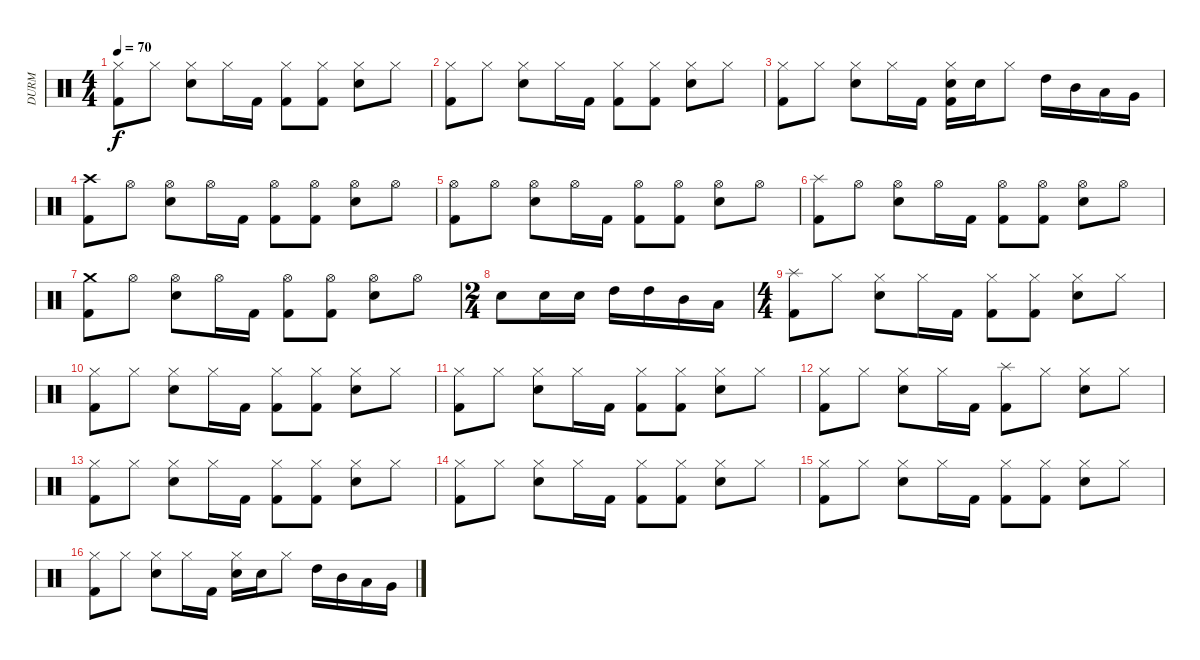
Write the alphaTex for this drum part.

\track ("DURM" "DURM") {instrument percussion}
\staff {score}
\articulation defaults
\ts (4 4)
\tempo 70
\clef neutral
\ks c
("Hi-Hat (closed)" "Kick (hit) 2").8{dy f} "Hi-Hat (closed)".8 ("Hi-Hat (closed)" "Snare (hit) 2").8 "Hi-Hat (closed)".16 "Kick (hit) 2".16 ("Hi-Hat (closed)" "Kick (hit) 2").8 ("Hi-Hat (closed)" "Kick (hit) 2").8 ("Hi-Hat (closed)" "Snare (hit) 2").8 "Hi-Hat (closed)".8 |
("Hi-Hat (closed)" "Kick (hit) 2").8 "Hi-Hat (closed)".8 ("Hi-Hat (closed)" "Snare (hit) 2").8 "Hi-Hat (closed)".16 "Kick (hit) 2".16 ("Hi-Hat (closed)" "Kick (hit) 2").8 ("Hi-Hat (closed)" "Kick (hit) 2").8 ("Hi-Hat (closed)" "Snare (hit) 2").8 "Hi-Hat (closed)".8 |
("Hi-Hat (closed)" "Kick (hit) 2").8 "Hi-Hat (closed)".8 ("Hi-Hat (closed)" "Snare (hit) 2").8 "Hi-Hat (closed)".16 "Kick (hit) 2".16 ("Hi-Hat (closed)" "Snare (hit) 2" "Kick (hit) 2").16 "Snare (hit) 2".16 "Hi-Hat (closed)".8 "High Tom (hit)".16 "Mid Tom (hit)".16 "Low Tom (hit)".16 "Very Low Tom (hit)".16 |
("Crash high (hit)" "Kick (hit) 2").8 "Hi-Hat (open)".8 ("Hi-Hat (open)" "Snare (hit) 2").8 "Hi-Hat (open)".16 "Kick (hit) 2".16 ("Hi-Hat (open)" "Kick (hit) 2").8 ("Hi-Hat (open)" "Kick (hit) 2").8 ("Hi-Hat (open)" "Snare (hit) 2").8 "Hi-Hat (open)".8 |
("Hi-Hat (open)" "Kick (hit) 2").8 "Hi-Hat (open)".8 ("Hi-Hat (open)" "Snare (hit) 2").8 "Hi-Hat (open)".16 "Kick (hit) 2".16 ("Hi-Hat (open)" "Kick (hit) 2").8 ("Hi-Hat (open)" "Kick (hit) 2").8 ("Hi-Hat (open)" "Snare (hit) 2").8 "Hi-Hat (open)".8 |
("Splash (hit)" "Kick (hit) 2").8 "Hi-Hat (open)".8 ("Hi-Hat (open)" "Snare (hit) 2").8 "Hi-Hat (open)".16 "Kick (hit) 2".16 ("Hi-Hat (open)" "Kick (hit) 2").8 ("Hi-Hat (open)" "Kick (hit) 2").8 ("Hi-Hat (open)" "Snare (hit) 2").8 "Hi-Hat (open)".8 |
("Crash medium (hit)" "Kick (hit) 2").8 "Hi-Hat (open)".8 ("Hi-Hat (open)" "Snare (hit) 2").8 "Hi-Hat (open)".16 "Kick (hit) 2".16 ("Hi-Hat (open)" "Kick (hit) 2").8 ("Hi-Hat (open)" "Kick (hit) 2").8 ("Hi-Hat (open)" "Snare (hit) 2").8 "Hi-Hat (open)".8 |
\ts (2 4)
"Snare (hit) 2".8 "Snare (hit) 2".16 "Snare (hit) 2".16 "High Tom (hit)".16 "High Tom (hit)".16 "Mid Tom (hit)".16 "Low Tom (hit)".16 |
\ts (4 4)
("Splash (hit)" "Kick (hit) 2").8 "Hi-Hat (closed)".8 ("Hi-Hat (closed)" "Snare (hit) 2").8 "Hi-Hat (closed)".16 "Kick (hit) 2".16 ("Hi-Hat (closed)" "Kick (hit) 2").8 ("Hi-Hat (closed)" "Kick (hit) 2").8 ("Hi-Hat (closed)" "Snare (hit) 2").8 "Hi-Hat (closed)".8 |
("Hi-Hat (closed)" "Kick (hit) 2").8 "Hi-Hat (closed)".8 ("Hi-Hat (closed)" "Snare (hit) 2").8 "Hi-Hat (closed)".16 "Kick (hit) 2".16 ("Hi-Hat (closed)" "Kick (hit) 2").8 ("Hi-Hat (closed)" "Kick (hit) 2").8 ("Hi-Hat (closed)" "Snare (hit) 2").8 "Hi-Hat (closed)".8 |
("Hi-Hat (closed)" "Kick (hit) 2").8 "Hi-Hat (closed)".8 ("Hi-Hat (closed)" "Snare (hit) 2").8 "Hi-Hat (closed)".16 "Kick (hit) 2".16 ("Hi-Hat (closed)" "Kick (hit) 2").8 ("Hi-Hat (closed)" "Kick (hit) 2").8 ("Hi-Hat (closed)" "Snare (hit) 2").8 "Hi-Hat (closed)".8 |
("Hi-Hat (closed)" "Kick (hit) 2").8 "Hi-Hat (closed)".8 ("Hi-Hat (closed)" "Snare (hit) 2").8 "Hi-Hat (closed)".16 "Kick (hit) 2".16 ("Splash (hit)" "Kick (hit) 2").8 "Hi-Hat (closed)".8 ("Hi-Hat (closed)" "Snare (hit) 2").8 "Hi-Hat (closed)".8 |
("Hi-Hat (closed)" "Kick (hit) 2").8 "Hi-Hat (closed)".8 ("Hi-Hat (closed)" "Snare (hit) 2").8 "Hi-Hat (closed)".16 "Kick (hit) 2".16 ("Hi-Hat (closed)" "Kick (hit) 2").8 ("Hi-Hat (closed)" "Kick (hit) 2").8 ("Hi-Hat (closed)" "Snare (hit) 2").8 "Hi-Hat (closed)".8 |
("Hi-Hat (closed)" "Kick (hit) 2").8 "Hi-Hat (closed)".8 ("Hi-Hat (closed)" "Snare (hit) 2").8 "Hi-Hat (closed)".16 "Kick (hit) 2".16 ("Hi-Hat (closed)" "Kick (hit) 2").8 ("Hi-Hat (closed)" "Kick (hit) 2").8 ("Hi-Hat (closed)" "Snare (hit) 2").8 "Hi-Hat (closed)".8 |
("Hi-Hat (closed)" "Kick (hit) 2").8 "Hi-Hat (closed)".8 ("Hi-Hat (closed)" "Snare (hit) 2").8 "Hi-Hat (closed)".16 "Kick (hit) 2".16 ("Hi-Hat (closed)" "Kick (hit) 2").8 ("Hi-Hat (closed)" "Kick (hit) 2").8 ("Hi-Hat (closed)" "Snare (hit) 2").8 "Hi-Hat (closed)".8 |
("Hi-Hat (closed)" "Kick (hit) 2").8 "Hi-Hat (closed)".8 ("Hi-Hat (closed)" "Snare (hit) 2").8 "Hi-Hat (closed)".16 "Kick (hit) 2".16 ("Hi-Hat (closed)" "Snare (hit) 2").16 "Snare (hit) 2".16 "Hi-Hat (closed)".8 "High Tom (hit)".16 "Mid Tom (hit)".16 "Low Tom (hit)".16 "Very Low Tom (hit)".16
